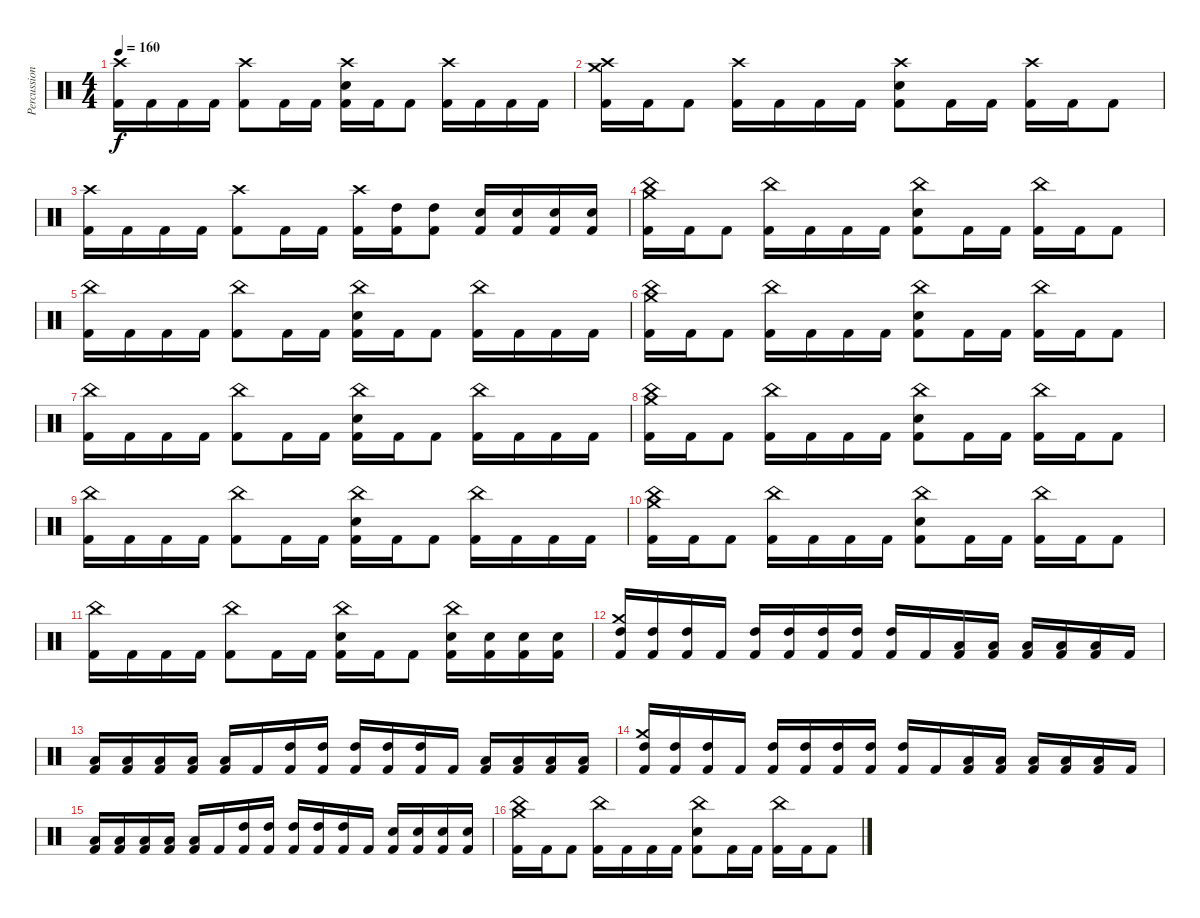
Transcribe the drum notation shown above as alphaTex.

\track ("Percussion" "Percussion") {instrument percussion bank 255}
\staff {score}
\articulation defaults
\ts (4 4)
\tempo 160
\clef neutral
\ks c
("Crash high (hit)" "Kick (hit) 2").16{dy f} "Kick (hit) 2".16 "Kick (hit) 2".16 "Kick (hit) 2".16 ("Crash high (hit)" "Kick (hit) 2").8 "Kick (hit) 2".16 "Kick (hit) 2".16 ("Crash high (hit)" "Electric Snare (hit)" "Kick (hit) 2").16 "Kick (hit) 2".16 "Kick (hit) 2".8 ("Crash high (hit)" "Kick (hit) 2").16 "Kick (hit) 2".16 "Kick (hit) 2".16 "Kick (hit) 2".16 |
("Crash medium (hit)" "Crash high (hit)" "Kick (hit) 2").16 "Kick (hit) 2".16 "Kick (hit) 2".8 ("Crash high (hit)" "Kick (hit) 2").16 "Kick (hit) 2".16 "Kick (hit) 2".16 "Kick (hit) 2".16 ("Crash high (hit)" "Electric Snare (hit)" "Kick (hit) 2").8 "Kick (hit) 2".16 "Kick (hit) 2".16 ("Crash high (hit)" "Kick (hit) 2").16 "Kick (hit) 2".16 "Kick (hit) 2".8 |
("Crash high (hit)" "Kick (hit) 2").16 "Kick (hit) 2".16 "Kick (hit) 2".16 "Kick (hit) 2".16 ("Crash high (hit)" "Kick (hit) 2").8 "Kick (hit) 2".16 "Kick (hit) 2".16 ("Crash high (hit)" "Kick (hit) 2").16 ("High Tom (hit)" "Kick (hit) 2").16 ("High Tom (hit)" "Kick (hit) 2").8 ("Electric Snare (hit)" "Kick (hit) 2").16 ("Electric Snare (hit)" "Kick (hit) 2").16 ("Electric Snare (hit)" "Kick (hit) 2").16 ("Electric Snare (hit)" "Kick (hit) 2").16 |
("Crash medium (hit)" "China (hit)" "Kick (hit) 2").16 "Kick (hit) 2".16 "Kick (hit) 2".8 ("China (hit)" "Kick (hit) 2").16 "Kick (hit) 2".16 "Kick (hit) 2".16 "Kick (hit) 2".16 ("China (hit)" "Electric Snare (hit)" "Kick (hit) 2").8 "Kick (hit) 2".16 "Kick (hit) 2".16 ("China (hit)" "Kick (hit) 2").16 "Kick (hit) 2".16 "Kick (hit) 2".8 |
("China (hit)" "Kick (hit) 2").16 "Kick (hit) 2".16 "Kick (hit) 2".16 "Kick (hit) 2".16 ("China (hit)" "Kick (hit) 2").8 "Kick (hit) 2".16 "Kick (hit) 2".16 ("China (hit)" "Electric Snare (hit)" "Kick (hit) 2").16 "Kick (hit) 2".16 "Kick (hit) 2".8 ("China (hit)" "Kick (hit) 2").16 "Kick (hit) 2".16 "Kick (hit) 2".16 "Kick (hit) 2".16 |
("Crash medium (hit)" "China (hit)" "Kick (hit) 2").16 "Kick (hit) 2".16 "Kick (hit) 2".8 ("China (hit)" "Kick (hit) 2").16 "Kick (hit) 2".16 "Kick (hit) 2".16 "Kick (hit) 2".16 ("China (hit)" "Electric Snare (hit)" "Kick (hit) 2").8 "Kick (hit) 2".16 "Kick (hit) 2".16 ("China (hit)" "Kick (hit) 2").16 "Kick (hit) 2".16 "Kick (hit) 2".8 |
("China (hit)" "Kick (hit) 2").16 "Kick (hit) 2".16 "Kick (hit) 2".16 "Kick (hit) 2".16 ("China (hit)" "Kick (hit) 2").8 "Kick (hit) 2".16 "Kick (hit) 2".16 ("China (hit)" "Electric Snare (hit)" "Kick (hit) 2").16 "Kick (hit) 2".16 "Kick (hit) 2".8 ("China (hit)" "Kick (hit) 2").16 "Kick (hit) 2".16 "Kick (hit) 2".16 "Kick (hit) 2".16 |
("Crash medium (hit)" "China (hit)" "Kick (hit) 2").16 "Kick (hit) 2".16 "Kick (hit) 2".8 ("China (hit)" "Kick (hit) 2").16 "Kick (hit) 2".16 "Kick (hit) 2".16 "Kick (hit) 2".16 ("China (hit)" "Electric Snare (hit)" "Kick (hit) 2").8 "Kick (hit) 2".16 "Kick (hit) 2".16 ("China (hit)" "Kick (hit) 2").16 "Kick (hit) 2".16 "Kick (hit) 2".8 |
("China (hit)" "Kick (hit) 2").16 "Kick (hit) 2".16 "Kick (hit) 2".16 "Kick (hit) 2".16 ("China (hit)" "Kick (hit) 2").8 "Kick (hit) 2".16 "Kick (hit) 2".16 ("China (hit)" "Electric Snare (hit)" "Kick (hit) 2").16 "Kick (hit) 2".16 "Kick (hit) 2".8 ("China (hit)" "Kick (hit) 2").16 "Kick (hit) 2".16 "Kick (hit) 2".16 "Kick (hit) 2".16 |
("Crash medium (hit)" "China (hit)" "Kick (hit) 2").16 "Kick (hit) 2".16 "Kick (hit) 2".8 ("China (hit)" "Kick (hit) 2").16 "Kick (hit) 2".16 "Kick (hit) 2".16 "Kick (hit) 2".16 ("China (hit)" "Electric Snare (hit)" "Kick (hit) 2").8 "Kick (hit) 2".16 "Kick (hit) 2".16 ("China (hit)" "Kick (hit) 2").16 "Kick (hit) 2".16 "Kick (hit) 2".8 |
("China (hit)" "Kick (hit) 2").16 "Kick (hit) 2".16 "Kick (hit) 2".16 "Kick (hit) 2".16 ("China (hit)" "Kick (hit) 2").8 "Kick (hit) 2".16 "Kick (hit) 2".16 ("China (hit)" "Electric Snare (hit)" "Kick (hit) 2").16 "Kick (hit) 2".16 "Kick (hit) 2".8 ("China (hit)" "Electric Snare (hit)" "Kick (hit) 2").16 ("Electric Snare (hit)" "Kick (hit) 2").16 ("Electric Snare (hit)" "Kick (hit) 2").16 ("Electric Snare (hit)" "Kick (hit) 2").16 |
("Crash medium (hit)" "High Tom (hit)" "Kick (hit) 2").16 ("High Tom (hit)" "Kick (hit) 2").16 ("High Tom (hit)" "Kick (hit) 2").16 "Kick (hit) 2".16 ("High Tom (hit)" "Kick (hit) 2").16 ("High Tom (hit)" "Kick (hit) 2").16 ("High Tom (hit)" "Kick (hit) 2").16 ("High Tom (hit)" "Kick (hit) 2").16 ("High Tom (hit)" "Kick (hit) 2").16 "Kick (hit) 2".16 ("Low Tom (hit)" "Kick (hit) 2").16 ("Low Tom (hit)" "Kick (hit) 2").16 ("Low Tom (hit)" "Kick (hit) 2").16 ("Low Tom (hit)" "Kick (hit) 2").16 ("Low Tom (hit)" "Kick (hit) 2").16 "Kick (hit) 2".16 |
("Low Tom (hit)" "Kick (hit) 2").16 ("Low Tom (hit)" "Kick (hit) 2").16 ("Low Tom (hit)" "Kick (hit) 2").16 ("Low Tom (hit)" "Kick (hit) 2").16 ("Low Tom (hit)" "Kick (hit) 2").16 "Kick (hit) 2".16 ("High Tom (hit)" "Kick (hit) 2").16 ("High Tom (hit)" "Kick (hit) 2").16 ("High Tom (hit)" "Kick (hit) 2").16 ("High Tom (hit)" "Kick (hit) 2").16 ("High Tom (hit)" "Kick (hit) 2").16 "Kick (hit) 2".16 ("Low Tom (hit)" "Kick (hit) 2").16 ("Low Tom (hit)" "Kick (hit) 2").16 ("Low Tom (hit)" "Kick (hit) 2").16 ("Low Tom (hit)" "Kick (hit) 2").16 |
("Crash medium (hit)" "High Tom (hit)" "Kick (hit) 2").16 ("High Tom (hit)" "Kick (hit) 2").16 ("High Tom (hit)" "Kick (hit) 2").16 "Kick (hit) 2".16 ("High Tom (hit)" "Kick (hit) 2").16 ("High Tom (hit)" "Kick (hit) 2").16 ("High Tom (hit)" "Kick (hit) 2").16 ("High Tom (hit)" "Kick (hit) 2").16 ("High Tom (hit)" "Kick (hit) 2").16 "Kick (hit) 2".16 ("Low Tom (hit)" "Kick (hit) 2").16 ("Low Tom (hit)" "Kick (hit) 2").16 ("Low Tom (hit)" "Kick (hit) 2").16 ("Low Tom (hit)" "Kick (hit) 2").16 ("Low Tom (hit)" "Kick (hit) 2").16 "Kick (hit) 2".16 |
("Low Tom (hit)" "Kick (hit) 2").16 ("Low Tom (hit)" "Kick (hit) 2").16 ("Low Tom (hit)" "Kick (hit) 2").16 ("Low Tom (hit)" "Kick (hit) 2").16 ("Low Tom (hit)" "Kick (hit) 2").16 "Kick (hit) 2".16 ("High Tom (hit)" "Kick (hit) 2").16 ("High Tom (hit)" "Kick (hit) 2").16 ("High Tom (hit)" "Kick (hit) 2").16 ("High Tom (hit)" "Kick (hit) 2").16 ("High Tom (hit)" "Kick (hit) 2").16 "Kick (hit) 2".16 ("Electric Snare (hit)" "Kick (hit) 2").16 ("Electric Snare (hit)" "Kick (hit) 2").16 ("Electric Snare (hit)" "Kick (hit) 2").16 ("Electric Snare (hit)" "Kick (hit) 2").16 |
("Crash medium (hit)" "China (hit)" "Kick (hit) 2").16 "Kick (hit) 2".16 "Kick (hit) 2".8 ("China (hit)" "Kick (hit) 2").16 "Kick (hit) 2".16 "Kick (hit) 2".16 "Kick (hit) 2".16 ("China (hit)" "Electric Snare (hit)" "Kick (hit) 2").8 "Kick (hit) 2".16 "Kick (hit) 2".16 ("China (hit)" "Kick (hit) 2").16 "Kick (hit) 2".16 "Kick (hit) 2".8
